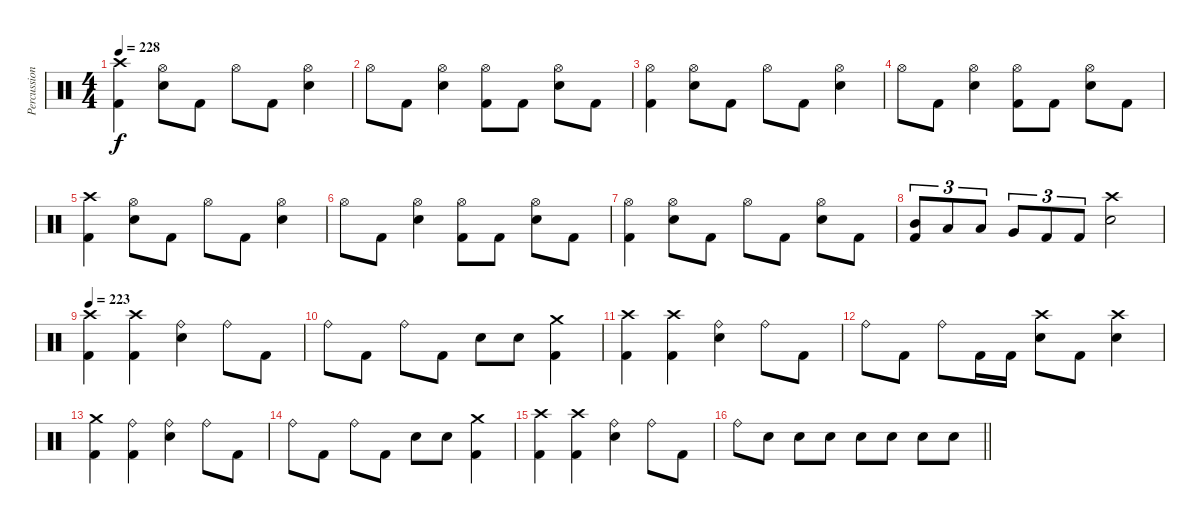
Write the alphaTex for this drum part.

\track ("Percussion" "Percussion") {instrument percussion}
\staff {score}
\articulation defaults
\ts (4 4)
\tempo 228
\clef neutral
\ks c
("Crash high (hit)" "Kick (hit) 2").4{dy f} ("Hi-Hat (open)" "Snare (hit) 2").8 "Kick (hit) 2".8 "Hi-Hat (open)".8 "Kick (hit) 2".8 ("Hi-Hat (open)" "Snare (hit) 2").4 |
"Hi-Hat (open)".8 "Kick (hit) 2".8 ("Hi-Hat (open)" "Snare (hit) 2").4 ("Hi-Hat (open)" "Kick (hit) 2").8 "Kick (hit) 2".8 ("Hi-Hat (open)" "Snare (hit) 2").8 "Kick (hit) 2".8 |
("Hi-Hat (open)" "Kick (hit) 2").4 ("Hi-Hat (open)" "Snare (hit) 2").8 "Kick (hit) 2".8 "Hi-Hat (open)".8 "Kick (hit) 2".8 ("Hi-Hat (open)" "Snare (hit) 2").4 |
"Hi-Hat (open)".8 "Kick (hit) 2".8 ("Hi-Hat (open)" "Snare (hit) 2").4 ("Hi-Hat (open)" "Kick (hit) 2").8 "Kick (hit) 2".8 ("Hi-Hat (open)" "Snare (hit) 2").8 "Kick (hit) 2".8 |
("Crash high (hit)" "Kick (hit) 2").4 ("Hi-Hat (open)" "Snare (hit) 2").8 "Kick (hit) 2".8 "Hi-Hat (open)".8 "Kick (hit) 2".8 ("Hi-Hat (open)" "Snare (hit) 2").4 |
"Hi-Hat (open)".8 "Kick (hit) 2".8 ("Hi-Hat (open)" "Snare (hit) 2").4 ("Hi-Hat (open)" "Kick (hit) 2").8 "Kick (hit) 2".8 ("Hi-Hat (open)" "Snare (hit) 2").8 "Kick (hit) 2".8 |
("Hi-Hat (open)" "Kick (hit) 2").4 ("Hi-Hat (open)" "Snare (hit) 2").8 "Kick (hit) 2".8 "Hi-Hat (open)".8 "Kick (hit) 2".8 ("Hi-Hat (open)" "Snare (hit) 2").8 "Kick (hit) 2".8 |
("Mid Tom (hit)" "Kick (hit) 2").8{tu (3 2)} "Low Tom (hit)".8{tu (3 2)} "Low Tom (hit)".8{tu (3 2)} "Very Low Tom (hit)".8{tu (3 2)} "Kick (hit) 2".8{tu (3 2)} "Kick (hit) 2".8{tu (3 2)} ("Crash high (hit)" "Snare (hit) 2").2 |
\tempo 223
("Crash high (hit)" "Kick (hit) 2").4 ("Crash high (hit)" "Kick (hit) 2").4 ("Ride (bell)" "Snare (hit) 2").4 "Ride (bell)".8 "Kick (hit) 2".8 |
"Ride (bell)".8 "Kick (hit) 2".8 "Ride (bell)".8 "Kick (hit) 2".8 "Snare (hit) 2".8 "Snare (hit) 2".8 ("Crash medium (hit)" "Kick (hit) 2").4 |
("Crash high (hit)" "Kick (hit) 2").4 ("Crash high (hit)" "Kick (hit) 2").4 ("Ride (bell)" "Snare (hit) 2").4 "Ride (bell)".8 "Kick (hit) 2".8 |
"Ride (bell)".8 "Kick (hit) 2".8 "Ride (bell)".8 "Kick (hit) 2".16 "Kick (hit) 2".16 ("Crash high (hit)" "Snare (hit) 2").8 "Kick (hit) 2".8 ("Crash high (hit)" "Snare (hit) 2").4 |
("Crash medium (hit)" "Kick (hit) 2").4 ("Ride (bell)" "Kick (hit) 2").4 ("Ride (bell)" "Snare (hit) 2").4 "Ride (bell)".8 "Kick (hit) 2".8 |
"Ride (bell)".8 "Kick (hit) 2".8 "Ride (bell)".8 "Kick (hit) 2".8 "Snare (hit) 2".8 "Snare (hit) 2".8 ("Crash medium (hit)" "Kick (hit) 2").4 |
("Crash high (hit)" "Kick (hit) 2").4 ("Crash high (hit)" "Kick (hit) 2").4 ("Ride (bell)" "Snare (hit) 2").4 "Ride (bell)".8 "Kick (hit) 2".8 |
\barLineRight lightlight "Ride (bell)".8 "Snare (hit) 2".8 "Snare (hit) 2".8 "Snare (hit) 2".8 "Snare (hit) 2".8 "Snare (hit) 2".8 "Snare (hit) 2".8 "Snare (hit) 2".8
